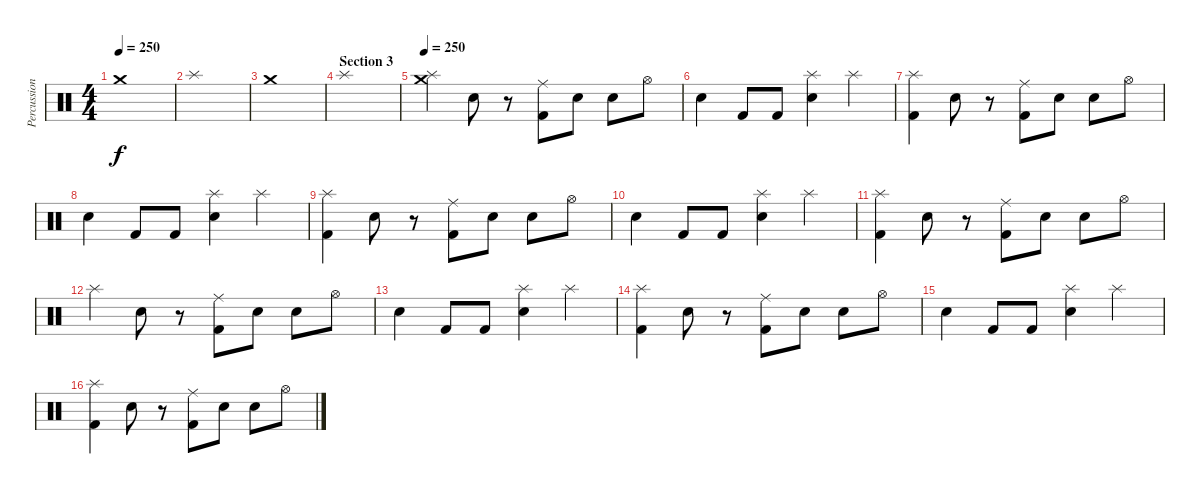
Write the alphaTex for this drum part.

\track ("Percussions2" "Percussion") {instrument percussion}
\staff {score}
\articulation defaults
\ts (4 4)
\tempo 250
\clef neutral
\ks c "Crash medium (hit)".1{dy f}
|
"Splash (hit)".1 |
"Crash medium (hit)".1 |
\section ("" "Section 3")
"Splash (hit)".1 |
\tempo 250
("Splash (hit)" "Crash medium (hit)").4 "Snare (hit) 2".8 r.8 ("Kick (hit) 2" "Ride (middle)").8 "Snare (hit) 2".8 "Snare (hit) 2".8 "Hi-Hat (open)".8 |
"Snare (hit) 2".4 "Kick (hit) 2".8 "Kick (hit) 2".8 ("Snare (hit) 2" "Splash (hit)").4 "Splash (hit)".4 |
("Splash (hit)" "Kick (hit) 2").4 "Snare (hit) 2".8 r.8 ("Kick (hit) 2" "Ride (middle)").8 "Snare (hit) 2".8 "Snare (hit) 2".8 "Hi-Hat (open)".8 |
"Snare (hit) 2".4 "Kick (hit) 2".8 "Kick (hit) 2".8 ("Snare (hit) 2" "Splash (hit)").4 "Splash (hit)".4 |
("Splash (hit)" "Kick (hit) 2").4 "Snare (hit) 2".8 r.8 ("Kick (hit) 2" "Ride (middle)").8 "Snare (hit) 2".8 "Snare (hit) 2".8 "Hi-Hat (open)".8 |
"Snare (hit) 2".4 "Kick (hit) 2".8 "Kick (hit) 2".8 ("Snare (hit) 2" "Splash (hit)").4 "Splash (hit)".4 |
("Splash (hit)" "Kick (hit) 2").4 "Snare (hit) 2".8 r.8 ("Kick (hit) 2" "Ride (middle)").8 "Snare (hit) 2".8 "Snare (hit) 2".8 "Hi-Hat (open)".8 |
"Splash (hit)".4 "Snare (hit) 2".8 r.8 ("Kick (hit) 2" "Ride (middle)").8 "Snare (hit) 2".8 "Snare (hit) 2".8 "Hi-Hat (open)".8 |
"Snare (hit) 2".4 "Kick (hit) 2".8 "Kick (hit) 2".8 ("Snare (hit) 2" "Splash (hit)").4 "Splash (hit)".4 |
("Splash (hit)" "Kick (hit) 2").4 "Snare (hit) 2".8 r.8 ("Kick (hit) 2" "Ride (middle)").8 "Snare (hit) 2".8 "Snare (hit) 2".8 "Hi-Hat (open)".8 |
"Snare (hit) 2".4 "Kick (hit) 2".8 "Kick (hit) 2".8 ("Snare (hit) 2" "Splash (hit)").4 "Splash (hit)".4 |
("Splash (hit)" "Kick (hit) 2").4 "Snare (hit) 2".8 r.8 ("Kick (hit) 2" "Ride (middle)").8 "Snare (hit) 2".8 "Snare (hit) 2".8 "Hi-Hat (open)".8
